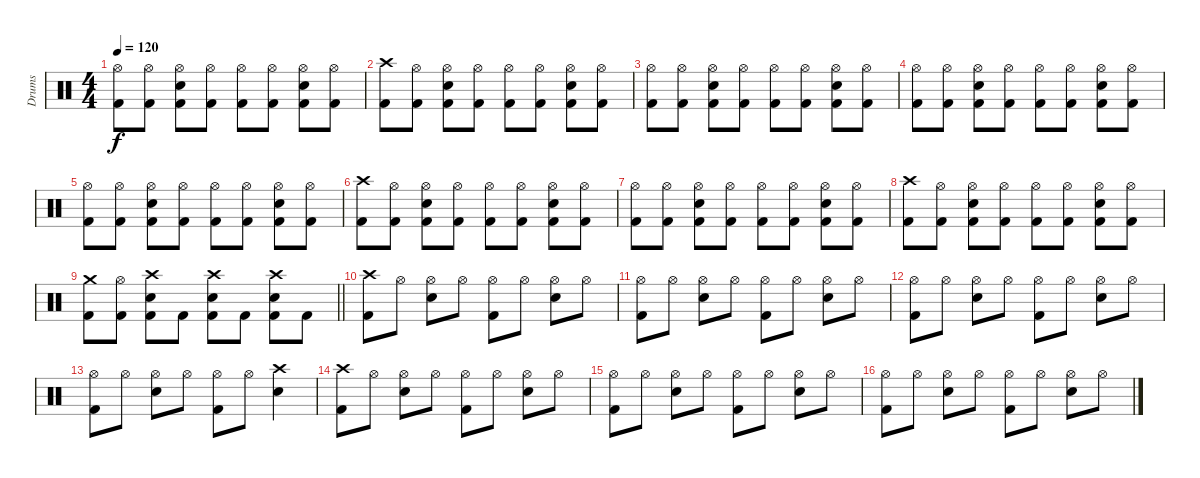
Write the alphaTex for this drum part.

\track ("Drums" "Drums") {instrument percussion}
\staff {score}
\articulation defaults
\ts (4 4)
\tempo 120
\clef neutral
\ks c
("Hi-Hat (open)" "Kick (hit) 2").8{dy f} ("Hi-Hat (open)" "Kick (hit) 2").8 ("Hi-Hat (open)" "Electric Snare (hit)" "Kick (hit) 2").8 ("Hi-Hat (open)" "Kick (hit) 2").8 ("Hi-Hat (open)" "Kick (hit) 2").8 ("Hi-Hat (open)" "Kick (hit) 2").8 ("Hi-Hat (open)" "Electric Snare (hit)" "Kick (hit) 2").8 ("Hi-Hat (open)" "Kick (hit) 2").8 |
("Crash high (hit)" "Kick (hit) 2").8 ("Hi-Hat (open)" "Kick (hit) 2").8 ("Hi-Hat (open)" "Electric Snare (hit)" "Kick (hit) 2").8 ("Hi-Hat (open)" "Kick (hit) 2").8 ("Hi-Hat (open)" "Kick (hit) 2").8 ("Hi-Hat (open)" "Kick (hit) 2").8 ("Hi-Hat (open)" "Electric Snare (hit)" "Kick (hit) 2").8 ("Hi-Hat (open)" "Kick (hit) 2").8 |
("Hi-Hat (open)" "Kick (hit) 2").8 ("Hi-Hat (open)" "Kick (hit) 2").8 ("Hi-Hat (open)" "Electric Snare (hit)" "Kick (hit) 2").8 ("Hi-Hat (open)" "Kick (hit) 2").8 ("Hi-Hat (open)" "Kick (hit) 2").8 ("Hi-Hat (open)" "Kick (hit) 2").8 ("Hi-Hat (open)" "Electric Snare (hit)" "Kick (hit) 2").8 ("Hi-Hat (open)" "Kick (hit) 2").8 |
("Hi-Hat (open)" "Kick (hit) 2").8 ("Hi-Hat (open)" "Kick (hit) 2").8 ("Hi-Hat (open)" "Electric Snare (hit)" "Kick (hit) 2").8 ("Hi-Hat (open)" "Kick (hit) 2").8 ("Hi-Hat (open)" "Kick (hit) 2").8 ("Hi-Hat (open)" "Kick (hit) 2").8 ("Hi-Hat (open)" "Electric Snare (hit)" "Kick (hit) 2").8 ("Hi-Hat (open)" "Kick (hit) 2").8 |
("Hi-Hat (open)" "Kick (hit) 2").8 ("Hi-Hat (open)" "Kick (hit) 2").8 ("Hi-Hat (open)" "Electric Snare (hit)" "Kick (hit) 2").8 ("Hi-Hat (open)" "Kick (hit) 2").8 ("Hi-Hat (open)" "Kick (hit) 2").8 ("Hi-Hat (open)" "Kick (hit) 2").8 ("Hi-Hat (open)" "Electric Snare (hit)" "Kick (hit) 2").8 ("Hi-Hat (open)" "Kick (hit) 2").8 |
("Crash high (hit)" "Kick (hit) 2").8 ("Hi-Hat (open)" "Kick (hit) 2").8 ("Hi-Hat (open)" "Electric Snare (hit)" "Kick (hit) 2").8 ("Hi-Hat (open)" "Kick (hit) 2").8 ("Hi-Hat (open)" "Kick (hit) 2").8 ("Hi-Hat (open)" "Kick (hit) 2").8 ("Hi-Hat (open)" "Electric Snare (hit)" "Kick (hit) 2").8 ("Hi-Hat (open)" "Kick (hit) 2").8 |
("Hi-Hat (open)" "Kick (hit) 2").8 ("Hi-Hat (open)" "Kick (hit) 2").8 ("Hi-Hat (open)" "Electric Snare (hit)" "Kick (hit) 2").8 ("Hi-Hat (open)" "Kick (hit) 2").8 ("Hi-Hat (open)" "Kick (hit) 2").8 ("Hi-Hat (open)" "Kick (hit) 2").8 ("Hi-Hat (open)" "Electric Snare (hit)" "Kick (hit) 2").8 ("Hi-Hat (open)" "Kick (hit) 2").8 |
("Crash high (hit)" "Kick (hit) 2").8 ("Hi-Hat (open)" "Kick (hit) 2").8 ("Hi-Hat (open)" "Electric Snare (hit)" "Kick (hit) 2").8 ("Hi-Hat (open)" "Kick (hit) 2").8 ("Hi-Hat (open)" "Kick (hit) 2").8 ("Hi-Hat (open)" "Kick (hit) 2").8 ("Hi-Hat (open)" "Electric Snare (hit)" "Kick (hit) 2").8 ("Hi-Hat (open)" "Kick (hit) 2").8 |
\barLineRight lightlight
("Crash medium (hit)" "Kick (hit) 2").8 ("Hi-Hat (open)" "Kick (hit) 2").8 ("Crash high (hit)" "Electric Snare (hit)" "Kick (hit) 2").8 "Kick (hit) 2".8 ("Crash high (hit)" "Electric Snare (hit)" "Kick (hit) 2").8 "Kick (hit) 2".8 ("Crash high (hit)" "Electric Snare (hit)" "Kick (hit) 2").8 "Kick (hit) 2".8 |
("Crash high (hit)" "Kick (hit) 2").8 "Hi-Hat (open)".8 ("Hi-Hat (open)" "Electric Snare (hit)").8 "Hi-Hat (open)".8 ("Hi-Hat (open)" "Kick (hit) 2").8 "Hi-Hat (open)".8 ("Hi-Hat (open)" "Electric Snare (hit)").8 "Hi-Hat (open)".8 |
("Hi-Hat (open)" "Kick (hit) 2").8 "Hi-Hat (open)".8 ("Hi-Hat (open)" "Electric Snare (hit)").8 "Hi-Hat (open)".8 ("Hi-Hat (open)" "Kick (hit) 2").8 "Hi-Hat (open)".8 ("Hi-Hat (open)" "Electric Snare (hit)").8 "Hi-Hat (open)".8 |
("Hi-Hat (open)" "Kick (hit) 2").8 "Hi-Hat (open)".8 ("Hi-Hat (open)" "Electric Snare (hit)").8 "Hi-Hat (open)".8 ("Hi-Hat (open)" "Kick (hit) 2").8 "Hi-Hat (open)".8 ("Hi-Hat (open)" "Electric Snare (hit)").8 "Hi-Hat (open)".8 |
("Hi-Hat (open)" "Kick (hit) 2").8 "Hi-Hat (open)".8 ("Hi-Hat (open)" "Electric Snare (hit)").8 "Hi-Hat (open)".8 ("Hi-Hat (open)" "Kick (hit) 2").8 "Hi-Hat (open)".8 ("Crash high (hit)" "Electric Snare (hit)").4 |
("Crash high (hit)" "Kick (hit) 2").8 "Hi-Hat (open)".8 ("Hi-Hat (open)" "Electric Snare (hit)").8 "Hi-Hat (open)".8 ("Hi-Hat (open)" "Kick (hit) 2").8 "Hi-Hat (open)".8 ("Hi-Hat (open)" "Electric Snare (hit)").8 "Hi-Hat (open)".8 |
("Hi-Hat (open)" "Kick (hit) 2").8 "Hi-Hat (open)".8 ("Hi-Hat (open)" "Electric Snare (hit)").8 "Hi-Hat (open)".8 ("Hi-Hat (open)" "Kick (hit) 2").8 "Hi-Hat (open)".8 ("Hi-Hat (open)" "Electric Snare (hit)").8 "Hi-Hat (open)".8 |
("Hi-Hat (open)" "Kick (hit) 2").8 "Hi-Hat (open)".8 ("Hi-Hat (open)" "Electric Snare (hit)").8 "Hi-Hat (open)".8 ("Hi-Hat (open)" "Kick (hit) 2").8 "Hi-Hat (open)".8 ("Hi-Hat (open)" "Electric Snare (hit)").8 "Hi-Hat (open)".8
